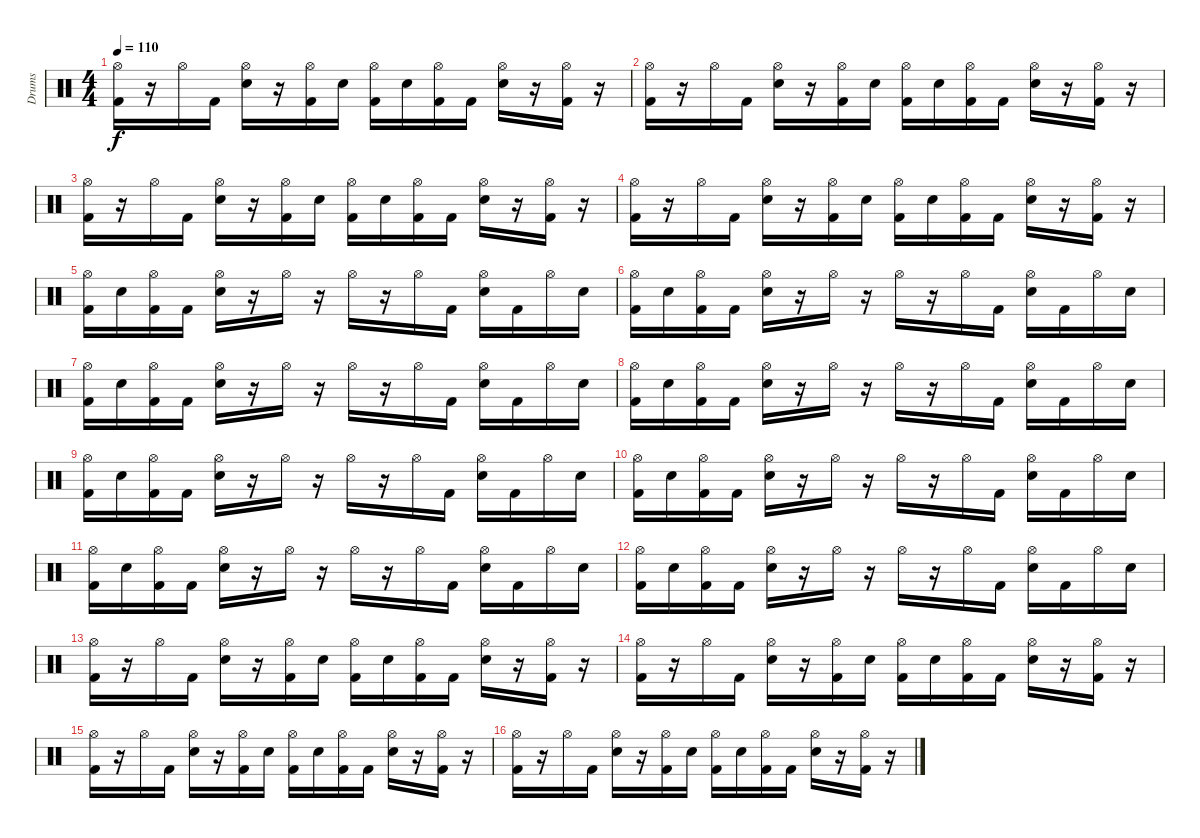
\track ("Drums" "Drums") {instrument percussion}
\staff {score}
\articulation defaults
\ts (4 4)
\tempo 110
\clef neutral
\ks c
("Hi-Hat (open)" "Kick (hit) 2").16{dy f} r.16 "Hi-Hat (open)".16 "Kick (hit) 2".16 ("Hi-Hat (open)" "Electric Snare (hit)").16 r.16 ("Hi-Hat (open)" "Kick (hit) 2").16 "Electric Snare (hit)".16 ("Hi-Hat (open)" "Kick (hit) 2").16 "Electric Snare (hit)".16 ("Hi-Hat (open)" "Kick (hit) 2").16 "Kick (hit) 2".16 ("Hi-Hat (open)" "Electric Snare (hit)").16 r.16 ("Hi-Hat (open)" "Kick (hit) 2").16 r.16 |
("Kick (hit) 2" "Hi-Hat (open)").16 r.16 "Hi-Hat (open)".16 "Kick (hit) 2".16 ("Hi-Hat (open)" "Electric Snare (hit)").16 r.16 ("Hi-Hat (open)" "Kick (hit) 2").16 "Electric Snare (hit)".16 ("Hi-Hat (open)" "Kick (hit) 2").16 "Electric Snare (hit)".16 ("Hi-Hat (open)" "Kick (hit) 2").16 "Kick (hit) 2".16 ("Hi-Hat (open)" "Electric Snare (hit)").16 r.16 ("Hi-Hat (open)" "Kick (hit) 2").16 r.16 |
("Kick (hit) 2" "Hi-Hat (open)").16 r.16 "Hi-Hat (open)".16 "Kick (hit) 2".16 ("Hi-Hat (open)" "Electric Snare (hit)").16 r.16 ("Hi-Hat (open)" "Kick (hit) 2").16 "Electric Snare (hit)".16 ("Hi-Hat (open)" "Kick (hit) 2").16 "Electric Snare (hit)".16 ("Hi-Hat (open)" "Kick (hit) 2").16 "Kick (hit) 2".16 ("Hi-Hat (open)" "Electric Snare (hit)").16 r.16 ("Hi-Hat (open)" "Kick (hit) 2").16 r.16 |
("Kick (hit) 2" "Hi-Hat (open)").16 r.16 "Hi-Hat (open)".16 "Kick (hit) 2".16 ("Hi-Hat (open)" "Electric Snare (hit)").16 r.16 ("Hi-Hat (open)" "Kick (hit) 2").16 "Electric Snare (hit)".16 ("Hi-Hat (open)" "Kick (hit) 2").16 "Electric Snare (hit)".16 ("Hi-Hat (open)" "Kick (hit) 2").16 "Kick (hit) 2".16 ("Hi-Hat (open)" "Electric Snare (hit)").16 r.16 ("Hi-Hat (open)" "Kick (hit) 2").16 r.16 |
("Kick (hit) 2" "Hi-Hat (open)").16 "Electric Snare (hit)".16 ("Kick (hit) 2" "Hi-Hat (open)").16 "Kick (hit) 2".16 ("Electric Snare (hit)" "Hi-Hat (open)").16 r.16 "Hi-Hat (open)".16 r.16 "Hi-Hat (open)".16 r.16 "Hi-Hat (open)".16 "Kick (hit) 2".16 ("Electric Snare (hit)" "Hi-Hat (open)").16 "Kick (hit) 2".16 "Hi-Hat (open)".16 "Electric Snare (hit)".16 |
("Kick (hit) 2" "Hi-Hat (open)").16 "Electric Snare (hit)".16 ("Kick (hit) 2" "Hi-Hat (open)").16 "Kick (hit) 2".16 ("Electric Snare (hit)" "Hi-Hat (open)").16 r.16 "Hi-Hat (open)".16 r.16 "Hi-Hat (open)".16 r.16 "Hi-Hat (open)".16 "Kick (hit) 2".16 ("Electric Snare (hit)" "Hi-Hat (open)").16 "Kick (hit) 2".16 "Hi-Hat (open)".16 "Electric Snare (hit)".16 |
("Kick (hit) 2" "Hi-Hat (open)").16 "Electric Snare (hit)".16 ("Kick (hit) 2" "Hi-Hat (open)").16 "Kick (hit) 2".16 ("Electric Snare (hit)" "Hi-Hat (open)").16 r.16 "Hi-Hat (open)".16 r.16 "Hi-Hat (open)".16 r.16 "Hi-Hat (open)".16 "Kick (hit) 2".16 ("Electric Snare (hit)" "Hi-Hat (open)").16 "Kick (hit) 2".16 "Hi-Hat (open)".16 "Electric Snare (hit)".16 |
("Kick (hit) 2" "Hi-Hat (open)").16 "Electric Snare (hit)".16 ("Kick (hit) 2" "Hi-Hat (open)").16 "Kick (hit) 2".16 ("Electric Snare (hit)" "Hi-Hat (open)").16 r.16 "Hi-Hat (open)".16 r.16 "Hi-Hat (open)".16 r.16 "Hi-Hat (open)".16 "Kick (hit) 2".16 ("Electric Snare (hit)" "Hi-Hat (open)").16 "Kick (hit) 2".16 "Hi-Hat (open)".16 "Electric Snare (hit)".16 |
("Kick (hit) 2" "Hi-Hat (open)").16 "Electric Snare (hit)".16 ("Kick (hit) 2" "Hi-Hat (open)").16 "Kick (hit) 2".16 ("Electric Snare (hit)" "Hi-Hat (open)").16 r.16 "Hi-Hat (open)".16 r.16 "Hi-Hat (open)".16 r.16 "Hi-Hat (open)".16 "Kick (hit) 2".16 ("Electric Snare (hit)" "Hi-Hat (open)").16 "Kick (hit) 2".16 "Hi-Hat (open)".16 "Electric Snare (hit)".16 |
("Kick (hit) 2" "Hi-Hat (open)").16 "Electric Snare (hit)".16 ("Kick (hit) 2" "Hi-Hat (open)").16 "Kick (hit) 2".16 ("Electric Snare (hit)" "Hi-Hat (open)").16 r.16 "Hi-Hat (open)".16 r.16 "Hi-Hat (open)".16 r.16 "Hi-Hat (open)".16 "Kick (hit) 2".16 ("Electric Snare (hit)" "Hi-Hat (open)").16 "Kick (hit) 2".16 "Hi-Hat (open)".16 "Electric Snare (hit)".16 |
("Kick (hit) 2" "Hi-Hat (open)").16 "Electric Snare (hit)".16 ("Kick (hit) 2" "Hi-Hat (open)").16 "Kick (hit) 2".16 ("Electric Snare (hit)" "Hi-Hat (open)").16 r.16 "Hi-Hat (open)".16 r.16 "Hi-Hat (open)".16 r.16 "Hi-Hat (open)".16 "Kick (hit) 2".16 ("Electric Snare (hit)" "Hi-Hat (open)").16 "Kick (hit) 2".16 "Hi-Hat (open)".16 "Electric Snare (hit)".16 |
("Kick (hit) 2" "Hi-Hat (open)").16 "Electric Snare (hit)".16 ("Kick (hit) 2" "Hi-Hat (open)").16 "Kick (hit) 2".16 ("Electric Snare (hit)" "Hi-Hat (open)").16 r.16 "Hi-Hat (open)".16 r.16 "Hi-Hat (open)".16 r.16 "Hi-Hat (open)".16 "Kick (hit) 2".16 ("Electric Snare (hit)" "Hi-Hat (open)").16 "Kick (hit) 2".16 "Hi-Hat (open)".16 "Electric Snare (hit)".16 |
("Hi-Hat (open)" "Kick (hit) 2").16 r.16 "Hi-Hat (open)".16 "Kick (hit) 2".16 ("Hi-Hat (open)" "Electric Snare (hit)").16 r.16 ("Hi-Hat (open)" "Kick (hit) 2").16 "Electric Snare (hit)".16 ("Hi-Hat (open)" "Kick (hit) 2").16 "Electric Snare (hit)".16 ("Hi-Hat (open)" "Kick (hit) 2").16 "Kick (hit) 2".16 ("Hi-Hat (open)" "Electric Snare (hit)").16 r.16 ("Hi-Hat (open)" "Kick (hit) 2").16 r.16 |
("Kick (hit) 2" "Hi-Hat (open)").16 r.16 "Hi-Hat (open)".16 "Kick (hit) 2".16 ("Hi-Hat (open)" "Electric Snare (hit)").16 r.16 ("Hi-Hat (open)" "Kick (hit) 2").16 "Electric Snare (hit)".16 ("Hi-Hat (open)" "Kick (hit) 2").16 "Electric Snare (hit)".16 ("Hi-Hat (open)" "Kick (hit) 2").16 "Kick (hit) 2".16 ("Hi-Hat (open)" "Electric Snare (hit)").16 r.16 ("Hi-Hat (open)" "Kick (hit) 2").16 r.16 |
("Kick (hit) 2" "Hi-Hat (open)").16 r.16 "Hi-Hat (open)".16 "Kick (hit) 2".16 ("Hi-Hat (open)" "Electric Snare (hit)").16 r.16 ("Hi-Hat (open)" "Kick (hit) 2").16 "Electric Snare (hit)".16 ("Hi-Hat (open)" "Kick (hit) 2").16 "Electric Snare (hit)".16 ("Hi-Hat (open)" "Kick (hit) 2").16 "Kick (hit) 2".16 ("Hi-Hat (open)" "Electric Snare (hit)").16 r.16 ("Hi-Hat (open)" "Kick (hit) 2").16 r.16 |
("Kick (hit) 2" "Hi-Hat (open)").16 r.16 "Hi-Hat (open)".16 "Kick (hit) 2".16 ("Hi-Hat (open)" "Electric Snare (hit)").16 r.16 ("Hi-Hat (open)" "Kick (hit) 2").16 "Electric Snare (hit)".16 ("Hi-Hat (open)" "Kick (hit) 2").16 "Electric Snare (hit)".16 ("Hi-Hat (open)" "Kick (hit) 2").16 "Kick (hit) 2".16 ("Hi-Hat (open)" "Electric Snare (hit)").16 r.16 ("Hi-Hat (open)" "Kick (hit) 2").16 r.16
